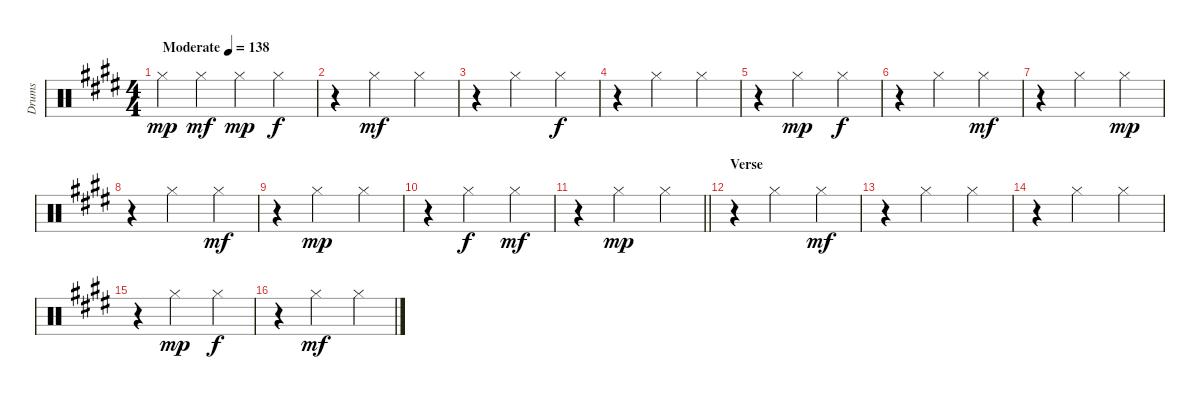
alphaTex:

\track ("Drums" "Drums") {instrument percussion}
\staff {score}
\articulation defaults
\ts (4 4)
\tempo (138 "Moderate")
\clef neutral
\ks e "Hi-Hat (closed)".4{dy mp} "Hi-Hat (closed)".4{dy mf} "Hi-Hat (closed)".4{dy mp} "Hi-Hat (closed)".4{dy f}
|
r.4 "Hi-Hat (closed)".2{dy mf} "Hi-Hat (closed)".4 |
r.4 "Hi-Hat (closed)".2 "Hi-Hat (closed)".4{dy f} |
r.4 "Hi-Hat (closed)".2 "Hi-Hat (closed)".4 |
r.4 "Hi-Hat (closed)".2{dy mp} "Hi-Hat (closed)".4{dy f} |
r.4 "Hi-Hat (closed)".2 "Hi-Hat (closed)".4{dy mf} |
r.4 "Hi-Hat (closed)".2 "Hi-Hat (closed)".4{dy mp} |
r.4 "Hi-Hat (closed)".2 "Hi-Hat (closed)".4{dy mf} |
r.4 "Hi-Hat (closed)".2{dy mp} "Hi-Hat (closed)".4 |
r.4 "Hi-Hat (closed)".2{dy f} "Hi-Hat (closed)".4{dy mf} |
\barLineRight lightlight
r.4 "Hi-Hat (closed)".2{dy mp} "Hi-Hat (closed)".4 |
\section ("" "Verse")
r.4 "Hi-Hat (closed)".2 "Hi-Hat (closed)".4{dy mf} |
r.4 "Hi-Hat (closed)".2 "Hi-Hat (closed)".4 |
r.4 "Hi-Hat (closed)".2 "Hi-Hat (closed)".4 |
r.4 "Hi-Hat (closed)".2{dy mp} "Hi-Hat (closed)".4{dy f} |
r.4 "Hi-Hat (closed)".2{dy mf} "Hi-Hat (closed)".4
